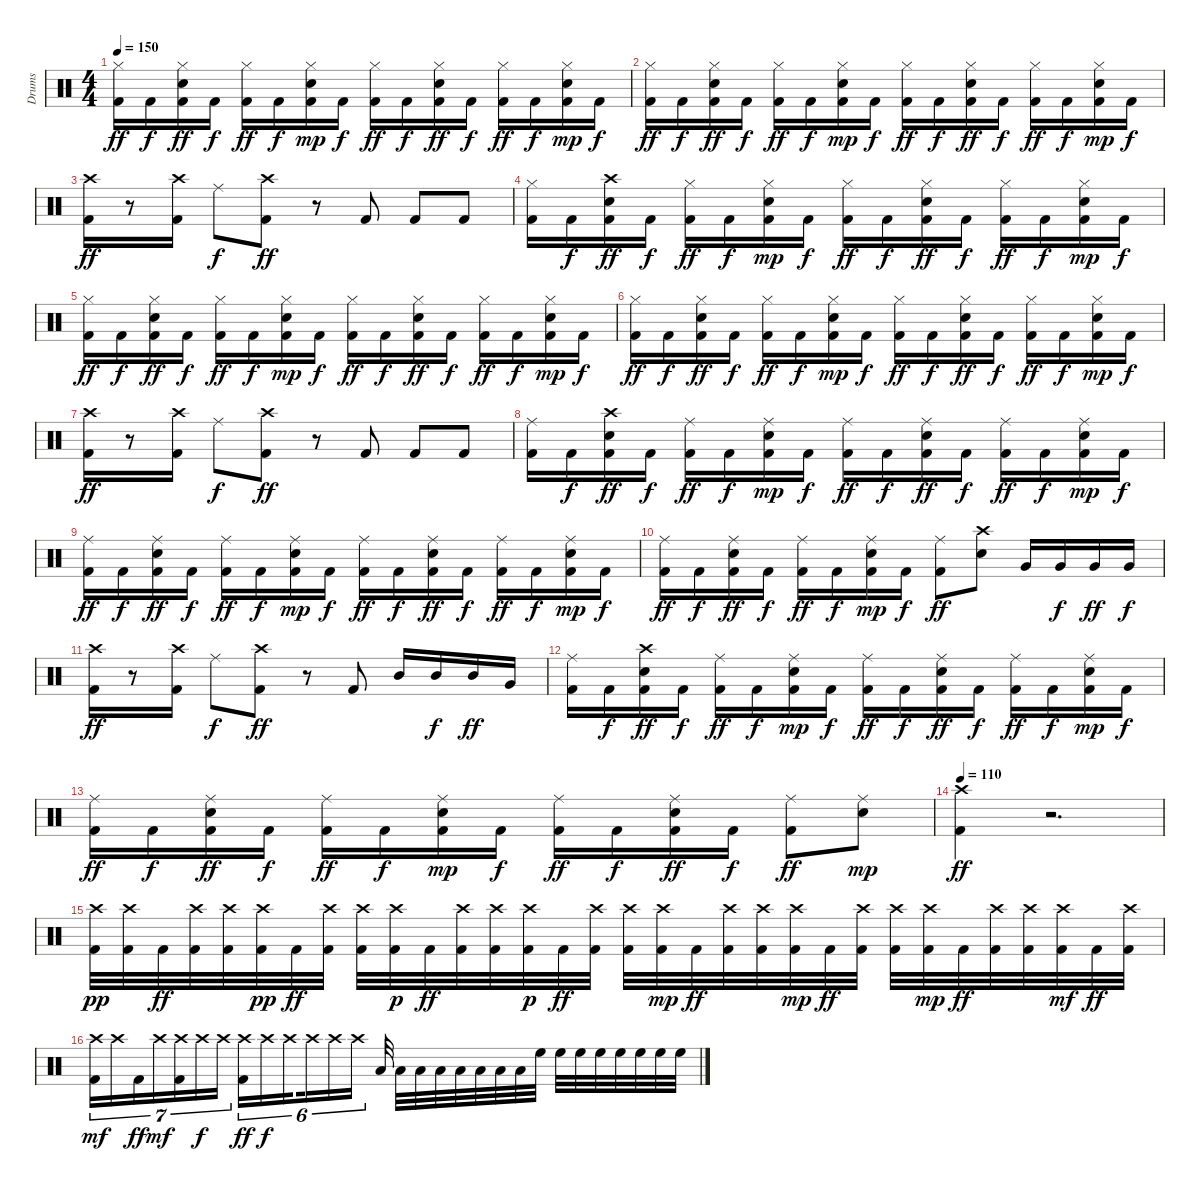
\track ("Drums" "Drums") {instrument percussion}
\staff {score}
\articulation defaults
\ts (4 4)
\tempo 150
\clef neutral
\ks c
("Kick (hit) 2" "Hi-Hat (closed)").16{dy ff} "Kick (hit) 2".16{dy f} ("Hi-Hat (closed)" "Snare (hit) 2" "Kick (hit) 2").16{dy ff} "Kick (hit) 2".16{dy f} ("Kick (hit) 2" "Hi-Hat (closed)").16{dy ff} "Kick (hit) 2".16{dy f} ("Kick (hit) 2" "Snare (hit) 2" "Hi-Hat (closed)").16{dy mp} "Kick (hit) 2".16{dy f} ("Kick (hit) 2" "Hi-Hat (closed)").16{dy ff} "Kick (hit) 2".16{dy f} ("Hi-Hat (closed)" "Snare (hit) 2" "Kick (hit) 2").16{dy ff} "Kick (hit) 2".16{dy f} ("Kick (hit) 2" "Hi-Hat (closed)").16{dy ff} "Kick (hit) 2".16{dy f} ("Kick (hit) 2" "Snare (hit) 2" "Hi-Hat (closed)").16{dy mp} "Kick (hit) 2".16{dy f} |
("Kick (hit) 2" "Hi-Hat (closed)").16{dy ff} "Kick (hit) 2".16{dy f} ("Hi-Hat (closed)" "Snare (hit) 2" "Kick (hit) 2").16{dy ff} "Kick (hit) 2".16{dy f} ("Kick (hit) 2" "Hi-Hat (closed)").16{dy ff} "Kick (hit) 2".16{dy f} ("Kick (hit) 2" "Snare (hit) 2" "Hi-Hat (closed)").16{dy mp} "Kick (hit) 2".16{dy f} ("Kick (hit) 2" "Hi-Hat (closed)").16{dy ff} "Kick (hit) 2".16{dy f} ("Hi-Hat (closed)" "Snare (hit) 2" "Kick (hit) 2").16{dy ff} "Kick (hit) 2".16{dy f} ("Kick (hit) 2" "Hi-Hat (closed)").16{dy ff} "Kick (hit) 2".16{dy f} ("Kick (hit) 2" "Snare (hit) 2" "Hi-Hat (closed)").16{dy mp} "Kick (hit) 2".16{dy f} |
("Crash high (hit)" "Kick (hit) 2").16{dy ff} r.8 ("Crash high (hit)" "Kick (hit) 2").16 "Ride (middle)".8{dy f} ("Crash high (hit)" "Kick (hit) 2").8{dy ff} r.8 "Kick (hit) 2".8 "Kick (hit) 2".8 "Kick (hit) 2".8 |
("Kick (hit) 2" "Hi-Hat (closed)").16 "Kick (hit) 2".16{dy f} ("Kick (hit) 2" "Snare (hit) 2" "Crash high (hit)").16{dy ff} "Kick (hit) 2".16{dy f} ("Kick (hit) 2" "Hi-Hat (closed)").16{dy ff} "Kick (hit) 2".16{dy f} ("Kick (hit) 2" "Snare (hit) 2" "Hi-Hat (closed)").16{dy mp} "Kick (hit) 2".16{dy f} ("Kick (hit) 2" "Hi-Hat (closed)").16{dy ff} "Kick (hit) 2".16{dy f} ("Hi-Hat (closed)" "Snare (hit) 2" "Kick (hit) 2").16{dy ff} "Kick (hit) 2".16{dy f} ("Kick (hit) 2" "Hi-Hat (closed)").16{dy ff} "Kick (hit) 2".16{dy f} ("Kick (hit) 2" "Snare (hit) 2" "Hi-Hat (closed)").16{dy mp} "Kick (hit) 2".16{dy f} |
("Kick (hit) 2" "Hi-Hat (closed)").16{dy ff} "Kick (hit) 2".16{dy f} ("Hi-Hat (closed)" "Snare (hit) 2" "Kick (hit) 2").16{dy ff} "Kick (hit) 2".16{dy f} ("Kick (hit) 2" "Hi-Hat (closed)").16{dy ff} "Kick (hit) 2".16{dy f} ("Kick (hit) 2" "Snare (hit) 2" "Hi-Hat (closed)").16{dy mp} "Kick (hit) 2".16{dy f} ("Kick (hit) 2" "Hi-Hat (closed)").16{dy ff} "Kick (hit) 2".16{dy f} ("Hi-Hat (closed)" "Snare (hit) 2" "Kick (hit) 2").16{dy ff} "Kick (hit) 2".16{dy f} ("Kick (hit) 2" "Hi-Hat (closed)").16{dy ff} "Kick (hit) 2".16{dy f} ("Kick (hit) 2" "Snare (hit) 2" "Hi-Hat (closed)").16{dy mp} "Kick (hit) 2".16{dy f} |
("Kick (hit) 2" "Hi-Hat (closed)").16{dy ff} "Kick (hit) 2".16{dy f} ("Hi-Hat (closed)" "Snare (hit) 2" "Kick (hit) 2").16{dy ff} "Kick (hit) 2".16{dy f} ("Kick (hit) 2" "Hi-Hat (closed)").16{dy ff} "Kick (hit) 2".16{dy f} ("Kick (hit) 2" "Snare (hit) 2" "Hi-Hat (closed)").16{dy mp} "Kick (hit) 2".16{dy f} ("Kick (hit) 2" "Hi-Hat (closed)").16{dy ff} "Kick (hit) 2".16{dy f} ("Hi-Hat (closed)" "Snare (hit) 2" "Kick (hit) 2").16{dy ff} "Kick (hit) 2".16{dy f} ("Kick (hit) 2" "Hi-Hat (closed)").16{dy ff} "Kick (hit) 2".16{dy f} ("Kick (hit) 2" "Snare (hit) 2" "Hi-Hat (closed)").16{dy mp} "Kick (hit) 2".16{dy f} |
("Crash high (hit)" "Kick (hit) 2").16{dy ff} r.8 ("Crash high (hit)" "Kick (hit) 2").16 "Ride (middle)".8{dy f} ("Crash high (hit)" "Kick (hit) 2").8{dy ff} r.8 "Kick (hit) 2".8 "Kick (hit) 2".8 "Kick (hit) 2".8 |
("Kick (hit) 2" "Ride (middle)").16 "Kick (hit) 2".16{dy f} ("Kick (hit) 2" "Snare (hit) 2" "Crash high (hit)").16{dy ff} "Kick (hit) 2".16{dy f} ("Kick (hit) 2" "Ride (middle)").16{dy ff} "Kick (hit) 2".16{dy f} ("Kick (hit) 2" "Snare (hit) 2" "Ride (middle)").16{dy mp} "Kick (hit) 2".16{dy f} ("Kick (hit) 2" "Ride (middle)").16{dy ff} "Kick (hit) 2".16{dy f} ("Ride (middle)" "Snare (hit) 2" "Kick (hit) 2").16{dy ff} "Kick (hit) 2".16{dy f} ("Kick (hit) 2" "Ride (middle)").16{dy ff} "Kick (hit) 2".16{dy f} ("Kick (hit) 2" "Snare (hit) 2" "Ride (middle)").16{dy mp} "Kick (hit) 2".16{dy f} |
("Kick (hit) 2" "Ride (middle)").16{dy ff} "Kick (hit) 2".16{dy f} ("Ride (middle)" "Snare (hit) 2" "Kick (hit) 2").16{dy ff} "Kick (hit) 2".16{dy f} ("Kick (hit) 2" "Ride (middle)").16{dy ff} "Kick (hit) 2".16{dy f} ("Kick (hit) 2" "Snare (hit) 2" "Ride (middle)").16{dy mp} "Kick (hit) 2".16{dy f} ("Kick (hit) 2" "Ride (middle)").16{dy ff} "Kick (hit) 2".16{dy f} ("Ride (middle)" "Snare (hit) 2" "Kick (hit) 2").16{dy ff} "Kick (hit) 2".16{dy f} ("Kick (hit) 2" "Ride (middle)").16{dy ff} "Kick (hit) 2".16{dy f} ("Kick (hit) 2" "Snare (hit) 2" "Ride (middle)").16{dy mp} "Kick (hit) 2".16{dy f} |
("Kick (hit) 2" "Ride (middle)").16{dy ff} "Kick (hit) 2".16{dy f} ("Ride (middle)" "Snare (hit) 2" "Kick (hit) 2").16{dy ff} "Kick (hit) 2".16{dy f} ("Kick (hit) 2" "Ride (middle)").16{dy ff} "Kick (hit) 2".16{dy f} ("Kick (hit) 2" "Snare (hit) 2" "Ride (middle)").16{dy mp} "Kick (hit) 2".16{dy f} ("Kick (hit) 2" "Ride (middle)").8{dy ff} ("Snare (hit) 2" "Crash high (hit)").8 "Very Low Tom (hit)".16 "Very Low Tom (hit)".16{dy f} "Very Low Tom (hit)".16{dy ff} "Very Low Tom (hit)".16{dy f} |
("Crash high (hit)" "Kick (hit) 2").16{dy ff} r.8 ("Crash high (hit)" "Kick (hit) 2").16 "Ride (middle)".8{dy f} ("Crash high (hit)" "Kick (hit) 2").8{dy ff} r.8 "Kick (hit) 2".8 "Mid Tom (hit)".16 "Mid Tom (hit)".16{dy f} "Mid Tom (hit)".16{dy ff} "Very Low Tom (hit)".16 |
("Kick (hit) 2" "Ride (middle)").16 "Kick (hit) 2".16{dy f} ("Kick (hit) 2" "Snare (hit) 2" "Crash high (hit)").16{dy ff} "Kick (hit) 2".16{dy f} ("Kick (hit) 2" "Ride (middle)").16{dy ff} "Kick (hit) 2".16{dy f} ("Kick (hit) 2" "Snare (hit) 2" "Ride (middle)").16{dy mp} "Kick (hit) 2".16{dy f} ("Kick (hit) 2" "Ride (middle)").16{dy ff} "Kick (hit) 2".16{dy f} ("Ride (middle)" "Snare (hit) 2" "Kick (hit) 2").16{dy ff} "Kick (hit) 2".16{dy f} ("Kick (hit) 2" "Ride (middle)").16{dy ff} "Kick (hit) 2".16{dy f} ("Kick (hit) 2" "Snare (hit) 2" "Ride (middle)").16{dy mp} "Kick (hit) 2".16{dy f} |
("Kick (hit) 2" "Ride (middle)").16{dy ff} "Kick (hit) 2".16{dy f} ("Ride (middle)" "Snare (hit) 2" "Kick (hit) 2").16{dy ff} "Kick (hit) 2".16{dy f} ("Kick (hit) 2" "Ride (middle)").16{dy ff} "Kick (hit) 2".16{dy f} ("Kick (hit) 2" "Snare (hit) 2" "Ride (middle)").16{dy mp} "Kick (hit) 2".16{dy f} ("Kick (hit) 2" "Ride (middle)").16{dy ff} "Kick (hit) 2".16{dy f} ("Ride (middle)" "Snare (hit) 2" "Kick (hit) 2").16{dy ff} "Kick (hit) 2".16{dy f} ("Kick (hit) 2" "Ride (middle)").8{dy ff} ("Snare (hit) 2" "Ride (middle)").8{dy mp} |
\tempo 110
("Crash high (hit)" "Kick (hit) 2").4{dy ff} r.2{d} |
("Kick (hit) 2" "Crash high (hit)").32{dy pp} ("Kick (hit) 2" "Crash high (hit)").32 "Kick (hit) 2".32{dy ff} ("Crash high (hit)" "Kick (hit) 2").32 ("Crash high (hit)" "Kick (hit) 2").32 ("Kick (hit) 2" "Crash high (hit)").32{dy pp} "Kick (hit) 2".32{dy ff} ("Crash high (hit)" "Kick (hit) 2").32 ("Crash high (hit)" "Kick (hit) 2").32 ("Kick (hit) 2" "Crash high (hit)").32{dy p} "Kick (hit) 2".32{dy ff} ("Crash high (hit)" "Kick (hit) 2").32 ("Crash high (hit)" "Kick (hit) 2").32 ("Kick (hit) 2" "Crash high (hit)").32{dy p} "Kick (hit) 2".32{dy ff} ("Crash high (hit)" "Kick (hit) 2").32 ("Crash high (hit)" "Kick (hit) 2").32 ("Kick (hit) 2" "Crash high (hit)").32{dy mp} "Kick (hit) 2".32{dy ff} ("Crash high (hit)" "Kick (hit) 2").32 ("Crash high (hit)" "Kick (hit) 2").32 ("Kick (hit) 2" "Crash high (hit)").32{dy mp} "Kick (hit) 2".32{dy ff} ("Crash high (hit)" "Kick (hit) 2").32 ("Crash high (hit)" "Kick (hit) 2").32 ("Kick (hit) 2" "Crash high (hit)").32{dy mp} "Kick (hit) 2".32{dy ff} ("Crash high (hit)" "Kick (hit) 2").32 ("Crash high (hit)" "Kick (hit) 2").32 ("Kick (hit) 2" "Crash high (hit)").32{dy mf} "Kick (hit) 2".32{dy ff} ("Crash high (hit)" "Kick (hit) 2").32 |
("Kick (hit) 2" "Crash high (hit)").16{tu (7 4) dy mf} "Crash high (hit)".16{tu (7 4)} "Kick (hit) 2".16{tu (7 4) dy ff} "Crash high (hit)".16{tu (7 4) dy mf} ("Kick (hit) 2" "Crash high (hit)").16{tu (7 4)} "Crash high (hit)".16{tu (7 4) dy f} "Crash high (hit)".16{tu (7 4)} ("Kick (hit) 2" "Crash high (hit)").16{tu (6 4) dy ff} "Crash high (hit)".16{tu (6 4) dy f} "Crash high (hit)".16{tu (6 4) beam splitsecondary} "Crash high (hit)".16{tu (6 4)} "Crash high (hit)".16{tu (6 4)} "Crash high (hit)".16{tu (6 4)} "Low Floor Tom (hit)".32 "Low Floor Tom (hit)".32 "Low Floor Tom (hit)".32 "Low Floor Tom (hit)".32 "Low Floor Tom (hit)".32 "Low Floor Tom (hit)".32 "Low Floor Tom (hit)".32 "Low Floor Tom (hit)".32 "High Floor Tom (hit)".32 "High Floor Tom (hit)".32 "High Floor Tom (hit)".32 "High Floor Tom (hit)".32 "High Floor Tom (hit)".32 "High Floor Tom (hit)".32 "High Floor Tom (hit)".32 "High Floor Tom (hit)".32
